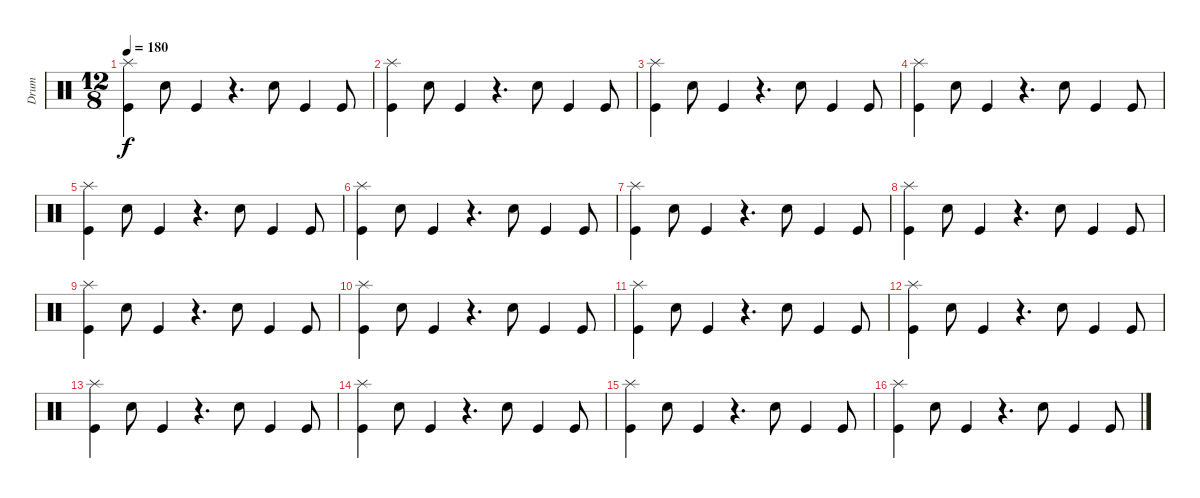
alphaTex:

\track ("Drum" "Drum") {instrument percussion}
\staff {score}
\articulation defaults
\ts (12 8)
\tempo 180
\clef neutral
\ks c
("Kick (hit)" "Splash (hit)").4{dy f} "Snare (hit) 2".8 "Kick (hit)".4 r.4{d} "Snare (hit) 2".8 "Kick (hit)".4 "Kick (hit)".8 |
("Kick (hit)" "Splash (hit)").4 "Snare (hit) 2".8 "Kick (hit)".4 r.4{d} "Snare (hit) 2".8 "Kick (hit)".4 "Kick (hit)".8 |
("Kick (hit)" "Splash (hit)").4 "Snare (hit) 2".8 "Kick (hit)".4 r.4{d} "Snare (hit) 2".8 "Kick (hit)".4 "Kick (hit)".8 |
("Kick (hit)" "Splash (hit)").4 "Snare (hit) 2".8 "Kick (hit)".4 r.4{d} "Snare (hit) 2".8 "Kick (hit)".4 "Kick (hit)".8 |
("Kick (hit)" "Splash (hit)").4 "Snare (hit) 2".8 "Kick (hit)".4 r.4{d} "Snare (hit) 2".8 "Kick (hit)".4 "Kick (hit)".8 |
("Kick (hit)" "Splash (hit)").4 "Snare (hit) 2".8 "Kick (hit)".4 r.4{d} "Snare (hit) 2".8 "Kick (hit)".4 "Kick (hit)".8 |
("Kick (hit)" "Splash (hit)").4 "Snare (hit) 2".8 "Kick (hit)".4 r.4{d} "Snare (hit) 2".8 "Kick (hit)".4 "Kick (hit)".8 |
("Kick (hit)" "Splash (hit)").4 "Snare (hit) 2".8 "Kick (hit)".4 r.4{d} "Snare (hit) 2".8 "Kick (hit)".4 "Kick (hit)".8 |
("Kick (hit)" "Splash (hit)").4 "Snare (hit) 2".8 "Kick (hit)".4 r.4{d} "Snare (hit) 2".8 "Kick (hit)".4 "Kick (hit)".8 |
("Kick (hit)" "Splash (hit)").4 "Snare (hit) 2".8 "Kick (hit)".4 r.4{d} "Snare (hit) 2".8 "Kick (hit)".4 "Kick (hit)".8 |
("Kick (hit)" "Splash (hit)").4 "Snare (hit) 2".8 "Kick (hit)".4 r.4{d} "Snare (hit) 2".8 "Kick (hit)".4 "Kick (hit)".8 |
("Kick (hit)" "Splash (hit)").4 "Snare (hit) 2".8 "Kick (hit)".4 r.4{d} "Snare (hit) 2".8 "Kick (hit)".4 "Kick (hit)".8 |
("Kick (hit)" "Splash (hit)").4 "Snare (hit) 2".8 "Kick (hit)".4 r.4{d} "Snare (hit) 2".8 "Kick (hit)".4 "Kick (hit)".8 |
("Kick (hit)" "Splash (hit)").4 "Snare (hit) 2".8 "Kick (hit)".4 r.4{d} "Snare (hit) 2".8 "Kick (hit)".4 "Kick (hit)".8 |
("Kick (hit)" "Splash (hit)").4 "Snare (hit) 2".8 "Kick (hit)".4 r.4{d} "Snare (hit) 2".8 "Kick (hit)".4 "Kick (hit)".8 |
("Kick (hit)" "Splash (hit)").4 "Snare (hit) 2".8 "Kick (hit)".4 r.4{d} "Snare (hit) 2".8 "Kick (hit)".4 "Kick (hit)".8
